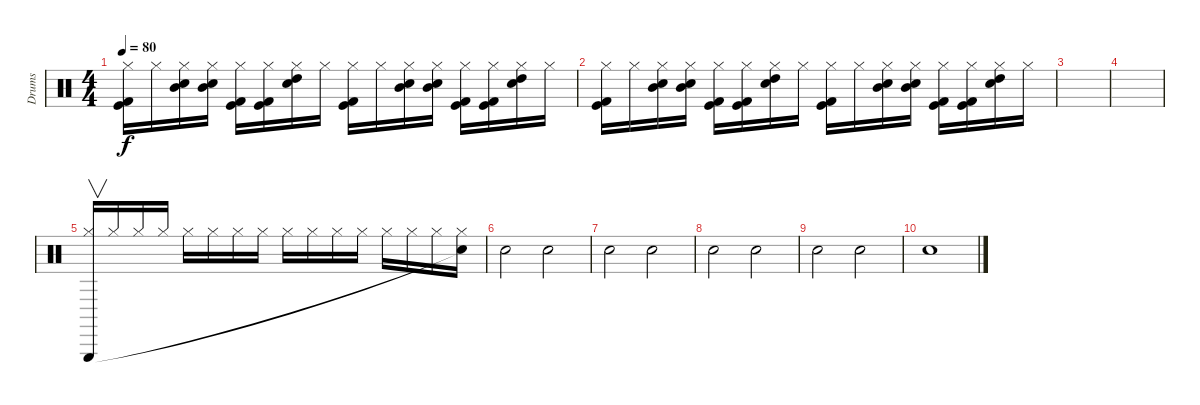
\track ("Drums" "Drums") {instrument percussion}
\staff {score}
\articulation defaults
\ts (4 4)
\tempo 80
\clef neutral
\ks c
("Hi-Hat (closed)" "Kick (hit)" "Kick (hit) 2").16{dy f} "Hi-Hat (closed)".16 ("Hi-Hat (closed)" "Electric Snare (hit)" "Mid Tom (hit)").16 ("Hi-Hat (closed)" "Electric Snare (hit)" "Mid Tom (hit)").16 ("Hi-Hat (closed)" "Kick (hit)" "Kick (hit) 2").16 ("Hi-Hat (closed)" "Kick (hit)" "Kick (hit) 2").16 ("Hi-Hat (closed)" "Electric Snare (hit)" "High Tom (hit)").16 "Hi-Hat (closed)".16 ("Hi-Hat (closed)" "Kick (hit)" "Kick (hit) 2").16 "Hi-Hat (closed)".16 ("Hi-Hat (closed)" "Electric Snare (hit)" "Mid Tom (hit)").16 ("Hi-Hat (closed)" "Electric Snare (hit)" "Mid Tom (hit)").16 ("Hi-Hat (closed)" "Kick (hit)" "Kick (hit) 2").16 ("Hi-Hat (closed)" "Kick (hit)" "Kick (hit) 2").16 ("Hi-Hat (closed)" "Electric Snare (hit)" "High Tom (hit)").16 "Hi-Hat (closed)".16 |
("Hi-Hat (closed)" "Kick (hit)" "Kick (hit) 2").16 "Hi-Hat (closed)".16 ("Hi-Hat (closed)" "Electric Snare (hit)" "Mid Tom (hit)").16 ("Hi-Hat (closed)" "Electric Snare (hit)" "Mid Tom (hit)").16 ("Hi-Hat (closed)" "Kick (hit)" "Kick (hit) 2").16 ("Hi-Hat (closed)" "Kick (hit)" "Kick (hit) 2").16 ("Hi-Hat (closed)" "Electric Snare (hit)" "High Tom (hit)").16 "Hi-Hat (closed)".16 ("Hi-Hat (closed)" "Kick (hit)" "Kick (hit) 2").16 "Hi-Hat (closed)".16 ("Hi-Hat (closed)" "Electric Snare (hit)" "Mid Tom (hit)").16 ("Hi-Hat (closed)" "Electric Snare (hit)" "Mid Tom (hit)").16 ("Hi-Hat (closed)" "Kick (hit)" "Kick (hit) 2").16 ("Hi-Hat (closed)" "Kick (hit)" "Kick (hit) 2").16 ("Hi-Hat (closed)" "Electric Snare (hit)" "High Tom (hit)").16 "Hi-Hat (closed)".16 |
|
|
("Hi-Hat (closed)" "Triangle (hit)").16{v} "Hi-Hat (closed)".16 "Hi-Hat (closed)".16 "Hi-Hat (closed)".16 "Hi-Hat (closed)".16 "Hi-Hat (closed)".16 "Hi-Hat (closed)".16 "Hi-Hat (closed)".16 "Hi-Hat (closed)".16 "Hi-Hat (closed)".16 "Hi-Hat (closed)".16 "Hi-Hat (closed)".16 "Hi-Hat (closed)".16 "Hi-Hat (closed)".16 "Hi-Hat (closed)".16 ("Hi-Hat (closed)" "Snare (hit)"{t}).16 |
"Electric Snare (hit)".2 "Electric Snare (hit)".2 |
"Electric Snare (hit)".2 "Electric Snare (hit)".2 |
"Electric Snare (hit)".2 "Electric Snare (hit)".2 |
"Electric Snare (hit)".2 "Electric Snare (hit)".2 |
"Electric Snare (hit)".1
